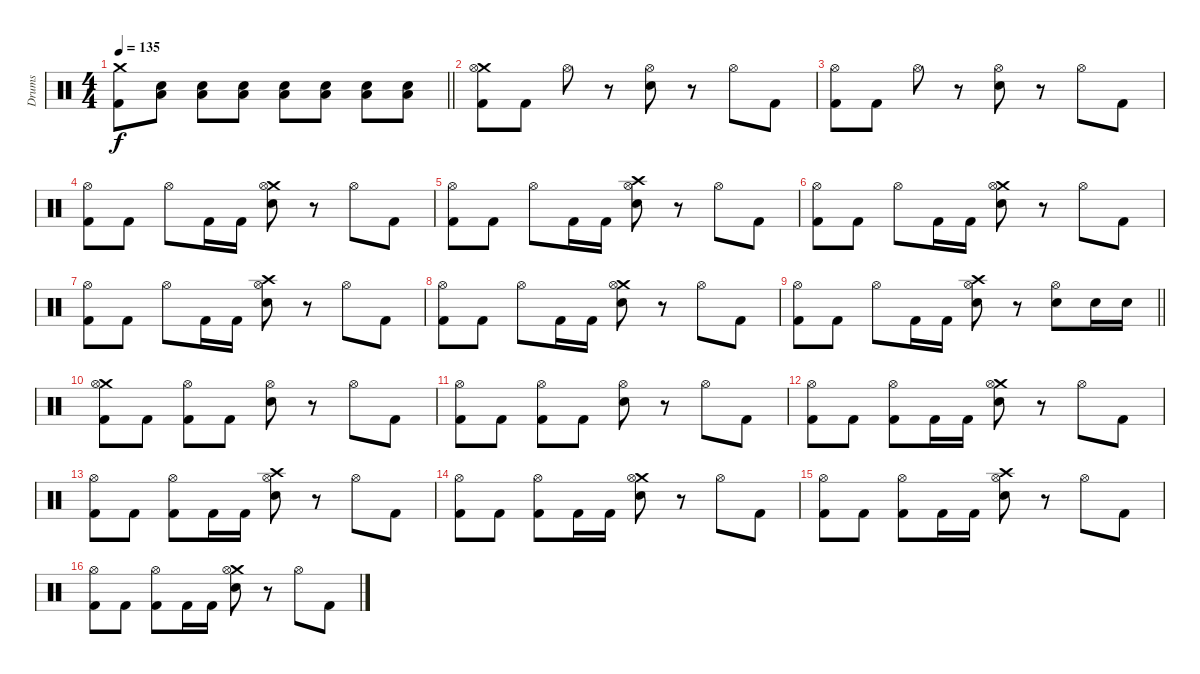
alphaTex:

\track ("Drums" "Drums") {instrument percussion}
\staff {score}
\articulation defaults
\ts (4 4)
\tempo 135
\clef neutral
\barLineRight lightlight
\ks c
("Crash medium (hit)" "Kick (hit) 2").8{dy f} ("Low Tom (hit)" "Electric Snare (hit)").8 ("Low Tom (hit)" "Electric Snare (hit)").8 ("Low Tom (hit)" "Electric Snare (hit)").8 ("Low Tom (hit)" "Electric Snare (hit)").8 ("Low Tom (hit)" "Electric Snare (hit)").8 ("Low Tom (hit)" "Electric Snare (hit)").8 ("Low Tom (hit)" "Electric Snare (hit)").8 |
\section ("" "")
("Crash medium (hit)" "Hi-Hat (open)" "Kick (hit) 2").8 "Kick (hit) 2".8 "Hi-Hat (open)".8 r.8 ("Hi-Hat (open)" "Electric Snare (hit)").8 r.8 "Hi-Hat (open)".8 "Kick (hit) 2".8 |
("Hi-Hat (open)" "Kick (hit) 2").8 "Kick (hit) 2".8 "Hi-Hat (open)".8 r.8 ("Hi-Hat (open)" "Electric Snare (hit)").8 r.8 "Hi-Hat (open)".8 "Kick (hit) 2".8 |
("Hi-Hat (open)" "Kick (hit) 2").8 "Kick (hit) 2".8 "Hi-Hat (open)".8 "Kick (hit) 2".16 "Kick (hit) 2".16 ("Crash medium (hit)" "Hi-Hat (open)" "Electric Snare (hit)").8 r.8 "Hi-Hat (open)".8 "Kick (hit) 2".8 |
("Hi-Hat (open)" "Kick (hit) 2").8 "Kick (hit) 2".8 "Hi-Hat (open)".8 "Kick (hit) 2".16 "Kick (hit) 2".16 ("Crash high (hit)" "Hi-Hat (open)" "Electric Snare (hit)").8 r.8 "Hi-Hat (open)".8 "Kick (hit) 2".8 |
("Hi-Hat (open)" "Kick (hit) 2").8 "Kick (hit) 2".8 "Hi-Hat (open)".8 "Kick (hit) 2".16 "Kick (hit) 2".16 ("Crash medium (hit)" "Hi-Hat (open)" "Electric Snare (hit)").8 r.8 "Hi-Hat (open)".8 "Kick (hit) 2".8 |
("Hi-Hat (open)" "Kick (hit) 2").8 "Kick (hit) 2".8 "Hi-Hat (open)".8 "Kick (hit) 2".16 "Kick (hit) 2".16 ("Crash high (hit)" "Hi-Hat (open)" "Electric Snare (hit)").8 r.8 "Hi-Hat (open)".8 "Kick (hit) 2".8 |
("Hi-Hat (open)" "Kick (hit) 2").8 "Kick (hit) 2".8 "Hi-Hat (open)".8 "Kick (hit) 2".16 "Kick (hit) 2".16 ("Crash medium (hit)" "Hi-Hat (open)" "Electric Snare (hit)").8 r.8 "Hi-Hat (open)".8 "Kick (hit) 2".8 |
\barLineRight lightlight
("Hi-Hat (open)" "Kick (hit) 2").8 "Kick (hit) 2".8 "Hi-Hat (open)".8 "Kick (hit) 2".16 "Kick (hit) 2".16 ("Crash high (hit)" "Hi-Hat (open)" "Electric Snare (hit)").8 r.8 ("Hi-Hat (open)" "Electric Snare (hit)").8 "Electric Snare (hit)".16 "Electric Snare (hit)".16 |
\section ("" "")
("Crash medium (hit)" "Hi-Hat (open)" "Kick (hit) 2").8 "Kick (hit) 2".8 ("Hi-Hat (open)" "Kick (hit) 2").8 "Kick (hit) 2".8 ("Hi-Hat (open)" "Electric Snare (hit)").8 r.8 "Hi-Hat (open)".8 "Kick (hit) 2".8 |
("Hi-Hat (open)" "Kick (hit) 2").8 "Kick (hit) 2".8 ("Hi-Hat (open)" "Kick (hit) 2").8 "Kick (hit) 2".8 ("Hi-Hat (open)" "Electric Snare (hit)").8 r.8 "Hi-Hat (open)".8 "Kick (hit) 2".8 |
("Hi-Hat (open)" "Kick (hit) 2").8 "Kick (hit) 2".8 ("Hi-Hat (open)" "Kick (hit) 2").8 "Kick (hit) 2".16 "Kick (hit) 2".16 ("Crash medium (hit)" "Hi-Hat (open)" "Electric Snare (hit)").8 r.8 "Hi-Hat (open)".8 "Kick (hit) 2".8 |
("Hi-Hat (open)" "Kick (hit) 2").8 "Kick (hit) 2".8 ("Hi-Hat (open)" "Kick (hit) 2").8 "Kick (hit) 2".16 "Kick (hit) 2".16 ("Crash high (hit)" "Hi-Hat (open)" "Electric Snare (hit)").8 r.8 "Hi-Hat (open)".8 "Kick (hit) 2".8 |
("Hi-Hat (open)" "Kick (hit) 2").8 "Kick (hit) 2".8 ("Hi-Hat (open)" "Kick (hit) 2").8 "Kick (hit) 2".16 "Kick (hit) 2".16 ("Crash medium (hit)" "Hi-Hat (open)" "Electric Snare (hit)").8 r.8 "Hi-Hat (open)".8 "Kick (hit) 2".8 |
("Hi-Hat (open)" "Kick (hit) 2").8 "Kick (hit) 2".8 ("Hi-Hat (open)" "Kick (hit) 2").8 "Kick (hit) 2".16 "Kick (hit) 2".16 ("Crash high (hit)" "Hi-Hat (open)" "Electric Snare (hit)").8 r.8 "Hi-Hat (open)".8 "Kick (hit) 2".8 |
("Hi-Hat (open)" "Kick (hit) 2").8 "Kick (hit) 2".8 ("Hi-Hat (open)" "Kick (hit) 2").8 "Kick (hit) 2".16 "Kick (hit) 2".16 ("Crash medium (hit)" "Hi-Hat (open)" "Electric Snare (hit)").8 r.8 "Hi-Hat (open)".8 "Kick (hit) 2".8
